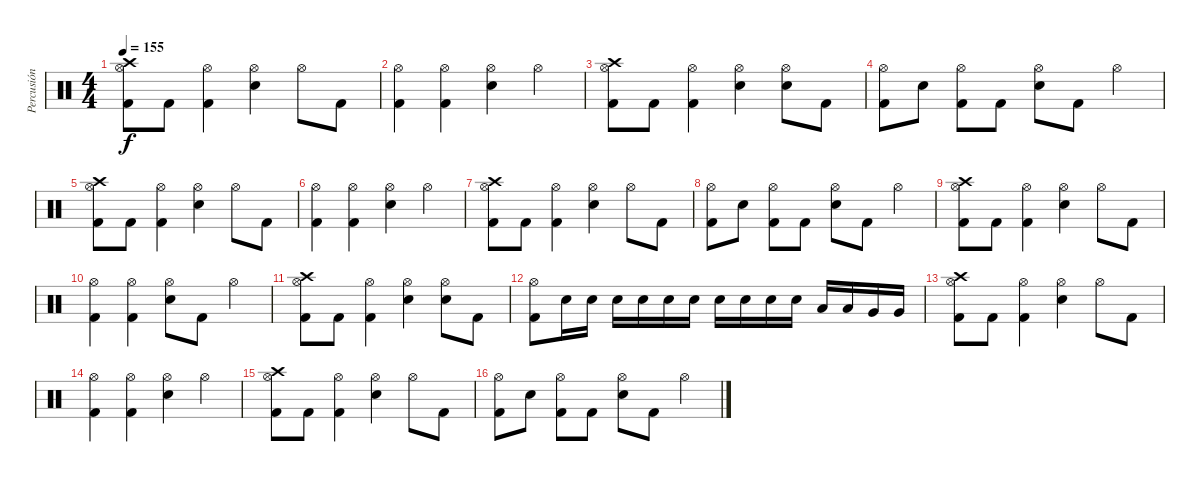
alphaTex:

\track ("Percusión" "Percusión") {instrument percussion}
\staff {score}
\articulation defaults
\ts (4 4)
\tempo 155
\clef neutral
\ks c
("Crash high (hit)" "Hi-Hat (open)" "Kick (hit) 2").8{dy f} "Kick (hit) 2".8 ("Hi-Hat (open)" "Kick (hit) 2").4 ("Hi-Hat (open)" "Snare (hit) 2").4 "Hi-Hat (open)".8 "Kick (hit) 2".8 |
("Hi-Hat (open)" "Kick (hit) 2").4 ("Hi-Hat (open)" "Kick (hit) 2").4 ("Hi-Hat (open)" "Snare (hit) 2").4 "Hi-Hat (open)".4 |
("Crash high (hit)" "Hi-Hat (open)" "Kick (hit) 2").8 "Kick (hit) 2".8 ("Hi-Hat (open)" "Kick (hit) 2").4 ("Hi-Hat (open)" "Snare (hit) 2").4 ("Hi-Hat (open)" "Snare (hit) 2").8 "Kick (hit) 2".8 |
("Hi-Hat (open)" "Kick (hit) 2").8 "Snare (hit) 2".8 ("Hi-Hat (open)" "Kick (hit) 2").8 "Kick (hit) 2".8 ("Hi-Hat (open)" "Snare (hit) 2").8 "Kick (hit) 2".8 "Hi-Hat (open)".4 |
("Crash high (hit)" "Hi-Hat (open)" "Kick (hit) 2").8 "Kick (hit) 2".8 ("Hi-Hat (open)" "Kick (hit) 2").4 ("Hi-Hat (open)" "Snare (hit) 2").4 "Hi-Hat (open)".8 "Kick (hit) 2".8 |
("Hi-Hat (open)" "Kick (hit) 2").4 ("Hi-Hat (open)" "Kick (hit) 2").4 ("Hi-Hat (open)" "Snare (hit) 2").4 "Hi-Hat (open)".4 |
("Crash high (hit)" "Hi-Hat (open)" "Kick (hit) 2").8 "Kick (hit) 2".8 ("Hi-Hat (open)" "Kick (hit) 2").4 ("Hi-Hat (open)" "Snare (hit) 2").4 "Hi-Hat (open)".8 "Kick (hit) 2".8 |
("Hi-Hat (open)" "Kick (hit) 2").8 "Snare (hit) 2".8 ("Hi-Hat (open)" "Kick (hit) 2").8 "Kick (hit) 2".8 ("Hi-Hat (open)" "Snare (hit) 2").8 "Kick (hit) 2".8 "Hi-Hat (open)".4 |
("Crash high (hit)" "Hi-Hat (open)" "Kick (hit) 2").8 "Kick (hit) 2".8 ("Hi-Hat (open)" "Kick (hit) 2").4 ("Hi-Hat (open)" "Snare (hit) 2").4 "Hi-Hat (open)".8 "Kick (hit) 2".8 |
("Hi-Hat (open)" "Kick (hit) 2").4 ("Hi-Hat (open)" "Kick (hit) 2").4 ("Hi-Hat (open)" "Snare (hit) 2").8 "Kick (hit) 2".8 "Hi-Hat (open)".4 |
("Crash high (hit)" "Hi-Hat (open)" "Kick (hit) 2").8 "Kick (hit) 2".8 ("Hi-Hat (open)" "Kick (hit) 2").4 ("Hi-Hat (open)" "Snare (hit) 2").4 ("Hi-Hat (open)" "Snare (hit) 2").8 "Kick (hit) 2".8 |
("Hi-Hat (open)" "Kick (hit) 2").8 "Snare (hit) 2".16 "Snare (hit) 2".16 "Snare (hit) 2".16 "Snare (hit) 2".16 "Snare (hit) 2".16 "Snare (hit) 2".16 "Snare (hit) 2".16 "Snare (hit) 2".16 "Snare (hit) 2".16 "Snare (hit) 2".16 "Low Tom (hit)".16 "Low Tom (hit)".16 "Very Low Tom (hit)".16 "Very Low Tom (hit)".16 |
("Crash high (hit)" "Hi-Hat (open)" "Kick (hit) 2").8 "Kick (hit) 2".8 ("Hi-Hat (open)" "Kick (hit) 2").4 ("Hi-Hat (open)" "Snare (hit) 2").4 "Hi-Hat (open)".8 "Kick (hit) 2".8 |
("Hi-Hat (open)" "Kick (hit) 2").4 ("Hi-Hat (open)" "Kick (hit) 2").4 ("Hi-Hat (open)" "Snare (hit) 2").4 "Hi-Hat (open)".4 |
("Crash high (hit)" "Hi-Hat (open)" "Kick (hit) 2").8 "Kick (hit) 2".8 ("Hi-Hat (open)" "Kick (hit) 2").4 ("Hi-Hat (open)" "Snare (hit) 2").4 "Hi-Hat (open)".8 "Kick (hit) 2".8 |
("Hi-Hat (open)" "Kick (hit) 2").8 "Snare (hit) 2".8 ("Hi-Hat (open)" "Kick (hit) 2").8 "Kick (hit) 2".8 ("Hi-Hat (open)" "Snare (hit) 2").8 "Kick (hit) 2".8 "Hi-Hat (open)".4
